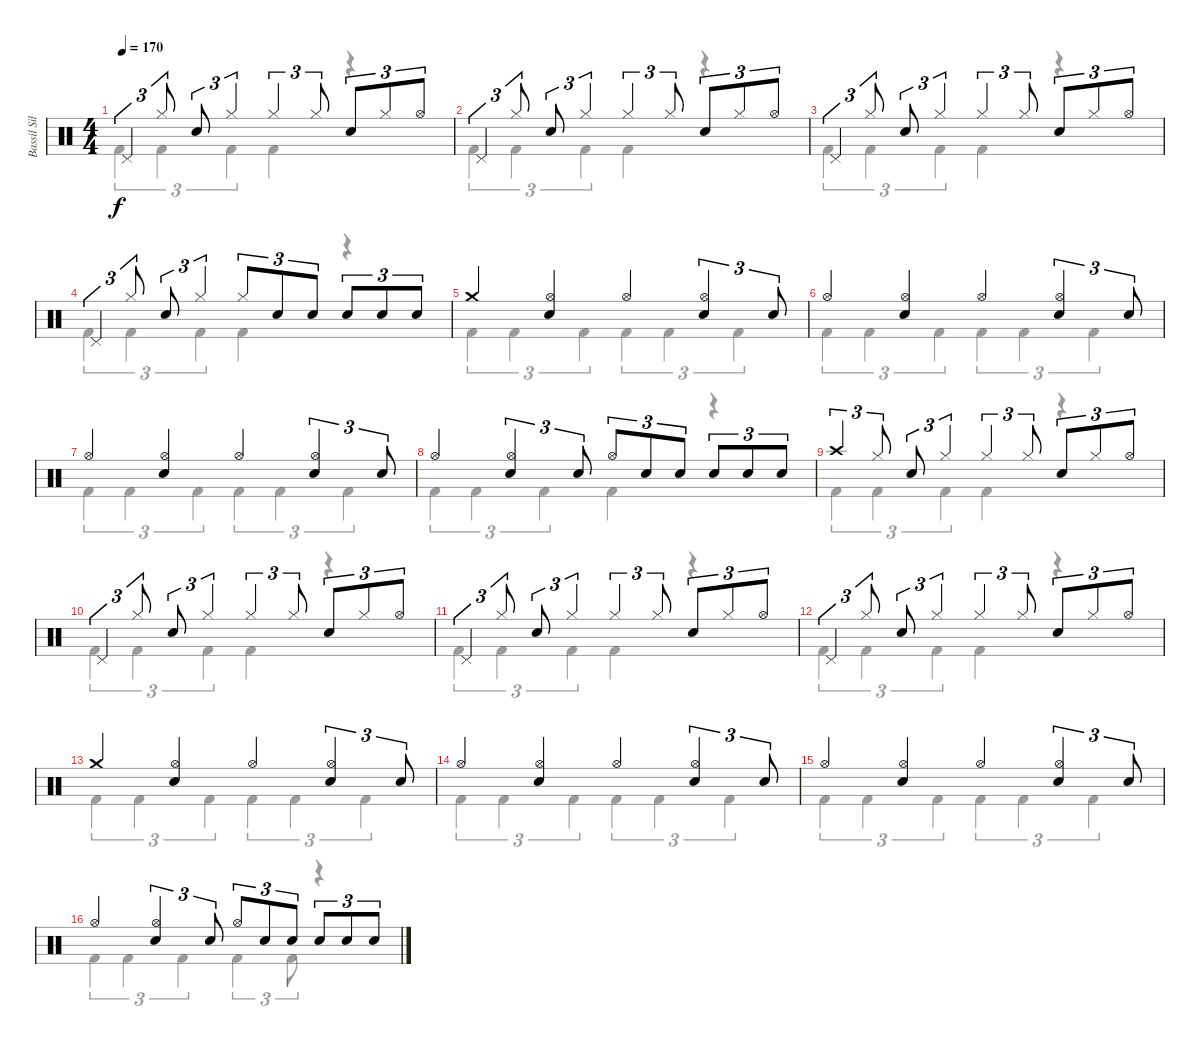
\track ("Bassil Silver-Hajo" "Bassil Sil") {instrument percussion}
\staff {score}
\articulation defaults
\voice
\ts (4 4)
\tempo 170
\clef neutral
\ks c "Pedal Hi-Hat (hit)".4{tu (3 2) dy f} "Hi-Hat (closed)".8{tu (3 2)} "Snare (hit) 2".8{tu (3 2)} "Hi-Hat (closed)".4{tu (3 2)} "Hi-Hat (closed)".4{tu (3 2)} "Hi-Hat (closed)".8{tu (3 2)} "Snare (hit) 2".8{tu (3 2)} "Hi-Hat (closed)".8{tu (3 2)} "Hi-Hat (open)".8{tu (3 2)}
|
"Pedal Hi-Hat (hit)".4{tu (3 2)} "Hi-Hat (closed)".8{tu (3 2)} "Snare (hit) 2".8{tu (3 2)} "Hi-Hat (closed)".4{tu (3 2)} "Hi-Hat (closed)".4{tu (3 2)} "Hi-Hat (closed)".8{tu (3 2)} "Snare (hit) 2".8{tu (3 2)} "Hi-Hat (closed)".8{tu (3 2)} "Hi-Hat (open)".8{tu (3 2)} |
"Pedal Hi-Hat (hit)".4{tu (3 2)} "Hi-Hat (closed)".8{tu (3 2)} "Snare (hit) 2".8{tu (3 2)} "Hi-Hat (closed)".4{tu (3 2)} "Hi-Hat (closed)".4{tu (3 2)} "Hi-Hat (closed)".8{tu (3 2)} "Snare (hit) 2".8{tu (3 2)} "Hi-Hat (closed)".8{tu (3 2)} "Hi-Hat (open)".8{tu (3 2)} |
"Pedal Hi-Hat (hit)".4{tu (3 2)} "Hi-Hat (closed)".8{tu (3 2)} "Snare (hit) 2".8{tu (3 2)} "Hi-Hat (closed)".4{tu (3 2)} "Hi-Hat (closed)".8{tu (3 2)} "Snare (hit) 2".8{tu (3 2)} "Snare (hit) 2".8{tu (3 2)} "Snare (hit) 2".8{tu (3 2)} "Snare (hit) 2".8{tu (3 2)} "Snare (hit) 2".8{tu (3 2)} |
"Crash medium (hit)".4 ("Hi-Hat (open)" "Snare (hit) 2").4 "Hi-Hat (open)".4 ("Hi-Hat (open)" "Snare (hit) 2").4{tu (3 2)} "Snare (hit) 2".8{tu (3 2)} |
"Hi-Hat (open)".4 ("Hi-Hat (open)" "Snare (hit) 2").4 "Hi-Hat (open)".4 ("Hi-Hat (open)" "Snare (hit) 2").4{tu (3 2)} "Snare (hit) 2".8{tu (3 2)} |
"Hi-Hat (open)".4 ("Hi-Hat (open)" "Snare (hit) 2").4 "Hi-Hat (open)".4 ("Hi-Hat (open)" "Snare (hit) 2").4{tu (3 2)} "Snare (hit) 2".8{tu (3 2)} |
"Hi-Hat (open)".4 ("Hi-Hat (open)" "Snare (hit) 2").4{tu (3 2)} "Snare (hit) 2".8{tu (3 2)} "Hi-Hat (open)".8{tu (3 2)} "Snare (hit) 2".8{tu (3 2)} "Snare (hit) 2".8{tu (3 2)} "Snare (hit) 2".8{tu (3 2)} "Snare (hit) 2".8{tu (3 2)} "Snare (hit) 2".8{tu (3 2)} |
"Crash high (hit)".4{tu (3 2)} "Hi-Hat (closed)".8{tu (3 2)} "Snare (hit) 2".8{tu (3 2)} "Hi-Hat (closed)".4{tu (3 2)} "Hi-Hat (closed)".4{tu (3 2)} "Hi-Hat (closed)".8{tu (3 2)} "Snare (hit) 2".8{tu (3 2)} "Hi-Hat (closed)".8{tu (3 2)} "Hi-Hat (open)".8{tu (3 2)} |
"Pedal Hi-Hat (hit)".4{tu (3 2)} "Hi-Hat (closed)".8{tu (3 2)} "Snare (hit) 2".8{tu (3 2)} "Hi-Hat (closed)".4{tu (3 2)} "Hi-Hat (closed)".4{tu (3 2)} "Hi-Hat (closed)".8{tu (3 2)} "Snare (hit) 2".8{tu (3 2)} "Hi-Hat (closed)".8{tu (3 2)} "Hi-Hat (open)".8{tu (3 2)} |
"Pedal Hi-Hat (hit)".4{tu (3 2)} "Hi-Hat (closed)".8{tu (3 2)} "Snare (hit) 2".8{tu (3 2)} "Hi-Hat (closed)".4{tu (3 2)} "Hi-Hat (closed)".4{tu (3 2)} "Hi-Hat (closed)".8{tu (3 2)} "Snare (hit) 2".8{tu (3 2)} "Hi-Hat (closed)".8{tu (3 2)} "Hi-Hat (open)".8{tu (3 2)} |
"Pedal Hi-Hat (hit)".4{tu (3 2)} "Hi-Hat (closed)".8{tu (3 2)} "Snare (hit) 2".8{tu (3 2)} "Hi-Hat (closed)".4{tu (3 2)} "Hi-Hat (closed)".4{tu (3 2)} "Hi-Hat (closed)".8{tu (3 2)} "Snare (hit) 2".8{tu (3 2)} "Hi-Hat (closed)".8{tu (3 2)} "Hi-Hat (open)".8{tu (3 2)} |
"Crash medium (hit)".4 ("Hi-Hat (open)" "Snare (hit) 2").4 "Hi-Hat (open)".4 ("Hi-Hat (open)" "Snare (hit) 2").4{tu (3 2)} "Snare (hit) 2".8{tu (3 2)} |
"Hi-Hat (open)".4 ("Hi-Hat (open)" "Snare (hit) 2").4 "Hi-Hat (open)".4 ("Hi-Hat (open)" "Snare (hit) 2").4{tu (3 2)} "Snare (hit) 2".8{tu (3 2)} |
"Hi-Hat (open)".4 ("Hi-Hat (open)" "Snare (hit) 2").4 "Hi-Hat (open)".4 ("Hi-Hat (open)" "Snare (hit) 2").4{tu (3 2)} "Snare (hit) 2".8{tu (3 2)} |
"Hi-Hat (open)".4 ("Hi-Hat (open)" "Snare (hit) 2").4{tu (3 2)} "Snare (hit) 2".8{tu (3 2)} "Hi-Hat (open)".8{tu (3 2)} "Snare (hit) 2".8{tu (3 2)} "Snare (hit) 2".8{tu (3 2)} "Snare (hit) 2".8{tu (3 2)} "Snare (hit) 2".8{tu (3 2)} "Snare (hit) 2".8{tu (3 2)}
\voice
\clef neutral
\ottava regular
\simile none
\ks c "Kick (hit) 2".4{tu (3 2) dy f} "Kick (hit) 2".4{tu (3 2)} "Kick (hit) 2".4{tu (3 2)} "Kick (hit) 2".4
r.4 |
"Kick (hit) 2".4{tu (3 2)} "Kick (hit) 2".4{tu (3 2)} "Kick (hit) 2".4{tu (3 2)} "Kick (hit) 2".4 r.4 |
"Kick (hit) 2".4{tu (3 2)} "Kick (hit) 2".4{tu (3 2)} "Kick (hit) 2".4{tu (3 2)} "Kick (hit) 2".4 r.4 |
"Kick (hit) 2".4{tu (3 2)} "Kick (hit) 2".4{tu (3 2)} "Kick (hit) 2".4{tu (3 2)} "Kick (hit) 2".4 r.4 |
"Kick (hit) 2".4{tu (3 2)} "Kick (hit) 2".4{tu (3 2)} "Kick (hit) 2".4{tu (3 2)} "Kick (hit) 2".4{tu (3 2)} "Kick (hit) 2".4{tu (3 2)} "Kick (hit) 2".4{tu (3 2)} |
"Kick (hit) 2".4{tu (3 2)} "Kick (hit) 2".4{tu (3 2)} "Kick (hit) 2".4{tu (3 2)} "Kick (hit) 2".4{tu (3 2)} "Kick (hit) 2".4{tu (3 2)} "Kick (hit) 2".4{tu (3 2)} |
"Kick (hit) 2".4{tu (3 2)} "Kick (hit) 2".4{tu (3 2)} "Kick (hit) 2".4{tu (3 2)} "Kick (hit) 2".4{tu (3 2)} "Kick (hit) 2".4{tu (3 2)} "Kick (hit) 2".4{tu (3 2)} |
"Kick (hit) 2".4{tu (3 2)} "Kick (hit) 2".4{tu (3 2)} "Kick (hit) 2".4{tu (3 2)} "Kick (hit) 2".4 r.4 |
"Kick (hit) 2".4{tu (3 2)} "Kick (hit) 2".4{tu (3 2)} "Kick (hit) 2".4{tu (3 2)} "Kick (hit) 2".4 r.4 |
"Kick (hit) 2".4{tu (3 2)} "Kick (hit) 2".4{tu (3 2)} "Kick (hit) 2".4{tu (3 2)} "Kick (hit) 2".4 r.4 |
"Kick (hit) 2".4{tu (3 2)} "Kick (hit) 2".4{tu (3 2)} "Kick (hit) 2".4{tu (3 2)} "Kick (hit) 2".4 r.4 |
"Kick (hit) 2".4{tu (3 2)} "Kick (hit) 2".4{tu (3 2)} "Kick (hit) 2".4{tu (3 2)} "Kick (hit) 2".4 r.4 |
"Kick (hit) 2".4{tu (3 2)} "Kick (hit) 2".4{tu (3 2)} "Kick (hit) 2".4{tu (3 2)} "Kick (hit) 2".4{tu (3 2)} "Kick (hit) 2".4{tu (3 2)} "Kick (hit) 2".4{tu (3 2)} |
"Kick (hit) 2".4{tu (3 2)} "Kick (hit) 2".4{tu (3 2)} "Kick (hit) 2".4{tu (3 2)} "Kick (hit) 2".4{tu (3 2)} "Kick (hit) 2".4{tu (3 2)} "Kick (hit) 2".4{tu (3 2)} |
"Kick (hit) 2".4{tu (3 2)} "Kick (hit) 2".4{tu (3 2)} "Kick (hit) 2".4{tu (3 2)} "Kick (hit) 2".4{tu (3 2)} "Kick (hit) 2".4{tu (3 2)} "Kick (hit) 2".4{tu (3 2)} |
"Kick (hit) 2".4{tu (3 2)} "Kick (hit) 2".4{tu (3 2)} "Kick (hit) 2".4{tu (3 2)} "Kick (hit) 2".4{tu (3 2)} "Kick (hit) 2".8{tu (3 2)} r.4
